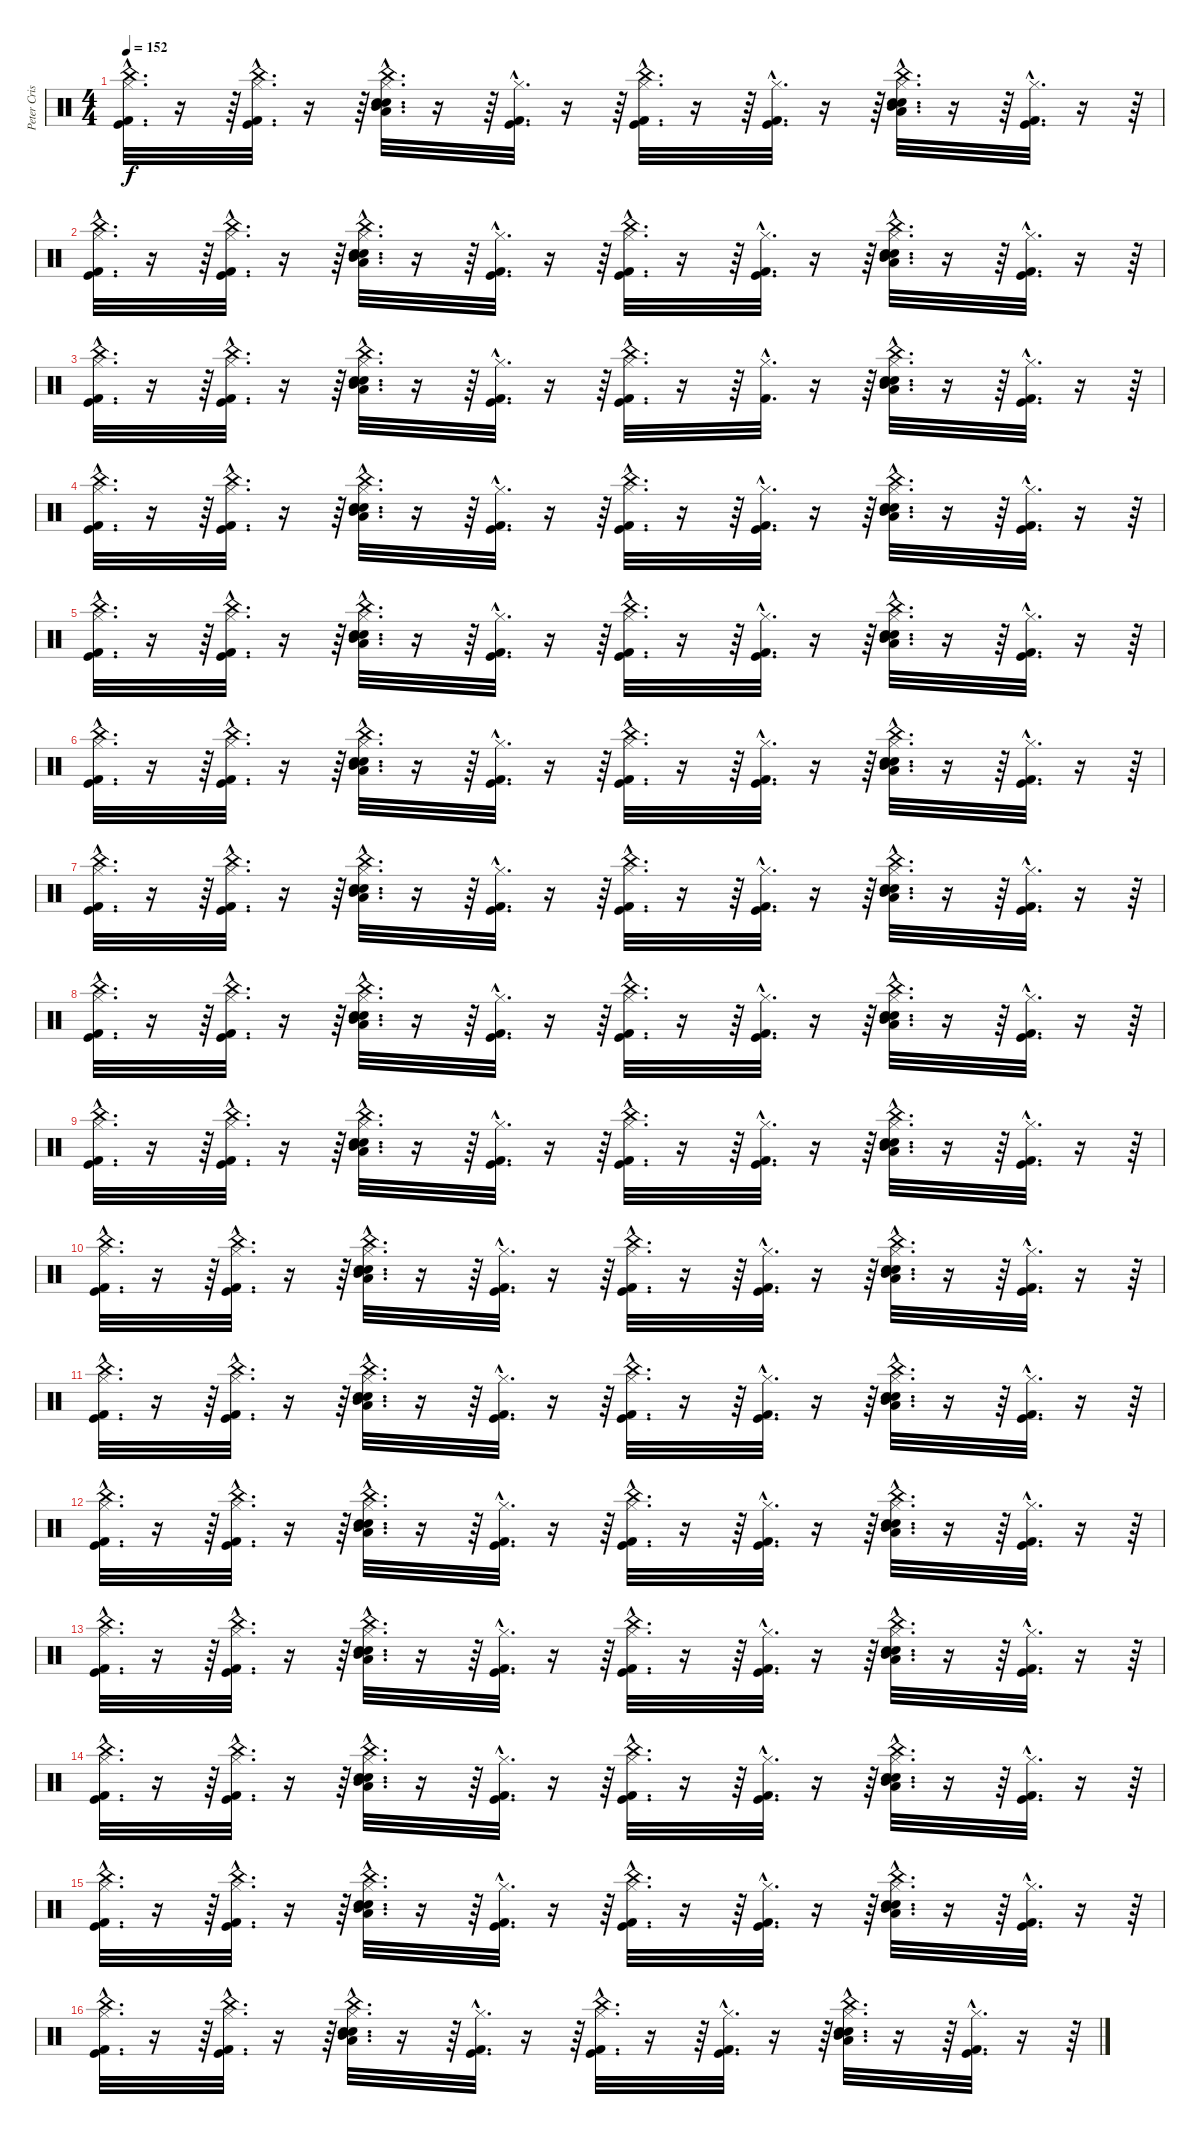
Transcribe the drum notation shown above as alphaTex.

\track ("Peter Criss" "Peter Cris") {instrument percussion}
\staff {score}
\articulation defaults
\ts (4 4)
\tempo 152
\clef neutral
\ks c
("China (hit)"{hac} "Kick (hit) 2"{hac} "Kick (hit)"{hac} "Hi-Hat (closed)"{hac}).32{d dy f} r.16 r.64 ("Kick (hit)"{hac} "Kick (hit) 2"{hac} "China (hit)"{hac} "Hi-Hat (closed)"{hac}).32{d} r.16 r.64 ("China (hit)"{hac} "Electric Snare (hit)"{hac} "Snare (hit) 2"{hac} "Hi-Hat (closed)"{hac} "Mid Tom (hit)"{hac} "Low Tom (hit)"{hac}).32{d} r.16 r.64 ("Kick (hit) 2"{hac} "Kick (hit)"{hac} "Hi-Hat (closed)"{hac}).32{d} r.16 r.64 ("China (hit)"{hac} "Kick (hit)"{hac} "Kick (hit) 2"{hac} "Hi-Hat (closed)"{hac}).32{d} r.16 r.64 ("Kick (hit) 2"{hac} "Kick (hit)"{hac} "Hi-Hat (closed)"{hac}).32{d} r.16 r.64 ("China (hit)"{hac} "Electric Snare (hit)"{hac} "Snare (hit) 2"{hac} "Hi-Hat (closed)"{hac} "Mid Tom (hit)"{hac} "Low Tom (hit)"{hac}).32{d} r.16 r.64 ("Kick (hit) 2"{hac} "Kick (hit)"{hac} "Hi-Hat (closed)"{hac}).32{d} r.16 r.64 |
("China (hit)"{hac} "Kick (hit) 2"{hac} "Kick (hit)"{hac} "Hi-Hat (closed)"{hac}).32{d} r.16 r.64 ("Kick (hit)"{hac} "Kick (hit) 2"{hac} "China (hit)"{hac} "Hi-Hat (closed)"{hac}).32{d} r.16 r.64 ("China (hit)"{hac} "Electric Snare (hit)"{hac} "Snare (hit) 2"{hac} "Hi-Hat (closed)"{hac} "Mid Tom (hit)"{hac} "Low Tom (hit)"{hac}).32{d} r.16 r.64 ("Kick (hit) 2"{hac} "Kick (hit)"{hac} "Hi-Hat (closed)"{hac}).32{d} r.16 r.64 ("China (hit)"{hac} "Kick (hit)"{hac} "Kick (hit) 2"{hac} "Hi-Hat (closed)"{hac}).32{d} r.16 r.64 ("Kick (hit) 2"{hac} "Kick (hit)"{hac} "Hi-Hat (closed)"{hac}).32{d} r.16 r.64 ("China (hit)"{hac} "Electric Snare (hit)"{hac} "Snare (hit) 2"{hac} "Hi-Hat (closed)"{hac} "Mid Tom (hit)"{hac} "Low Tom (hit)"{hac}).32{d} r.16 r.64 ("Kick (hit) 2"{hac} "Kick (hit)"{hac} "Hi-Hat (closed)"{hac}).32{d} r.16 r.64 |
("China (hit)"{hac} "Kick (hit) 2"{hac} "Kick (hit)"{hac} "Hi-Hat (closed)"{hac}).32{d} r.16 r.64 ("Kick (hit) 2"{hac} "China (hit)"{hac} "Hi-Hat (closed)"{hac} "Kick (hit)"{hac}).32{d} r.16 r.64 ("China (hit)"{hac} "Electric Snare (hit)"{hac} "Snare (hit) 2"{hac} "Hi-Hat (closed)"{hac} "Mid Tom (hit)"{hac} "Low Tom (hit)"{hac}).32{d} r.16 r.64 ("Kick (hit) 2"{hac} "Kick (hit)"{hac} "Hi-Hat (closed)"{hac}).32{d} r.16 r.64 ("China (hit)"{hac} "Kick (hit)"{hac} "Kick (hit) 2"{hac} "Hi-Hat (closed)"{hac}).32{d} r.16 r.64 ("Kick (hit) 2"{hac} "Hi-Hat (closed)"{hac}).32{d} r.16 r.64 ("China (hit)"{hac} "Electric Snare (hit)"{hac} "Snare (hit) 2"{hac} "Hi-Hat (closed)"{hac} "Mid Tom (hit)"{hac} "Low Tom (hit)"{hac}).32{d} r.16 r.64 ("Kick (hit) 2"{hac} "Kick (hit)"{hac} "Hi-Hat (closed)"{hac}).32{d} r.16 r.64 |
("China (hit)"{hac} "Kick (hit) 2"{hac} "Kick (hit)"{hac} "Hi-Hat (closed)"{hac}).32{d} r.16 r.64 ("Kick (hit)"{hac} "Kick (hit) 2"{hac} "China (hit)"{hac} "Hi-Hat (closed)"{hac}).32{d} r.16 r.64 ("China (hit)"{hac} "Electric Snare (hit)"{hac} "Snare (hit) 2"{hac} "Hi-Hat (closed)"{hac} "Mid Tom (hit)"{hac} "Low Tom (hit)"{hac}).32{d} r.16 r.64 ("Kick (hit) 2"{hac} "Kick (hit)"{hac} "Hi-Hat (closed)"{hac}).32{d} r.16 r.64 ("China (hit)"{hac} "Kick (hit)"{hac} "Kick (hit) 2"{hac} "Hi-Hat (closed)"{hac}).32{d} r.16 r.64 ("Kick (hit) 2"{hac} "Kick (hit)"{hac} "Hi-Hat (closed)"{hac}).32{d} r.16 r.64 ("China (hit)"{hac} "Electric Snare (hit)"{hac} "Snare (hit) 2"{hac} "Hi-Hat (closed)"{hac} "Mid Tom (hit)"{hac} "Low Tom (hit)"{hac}).32{d} r.16 r.64 ("Kick (hit) 2"{hac} "Kick (hit)"{hac} "Hi-Hat (closed)"{hac}).32{d} r.16 r.64 |
("China (hit)"{hac} "Kick (hit) 2"{hac} "Kick (hit)"{hac} "Hi-Hat (closed)"{hac}).32{d} r.16 r.64 ("Kick (hit)"{hac} "Kick (hit) 2"{hac} "China (hit)"{hac} "Hi-Hat (closed)"{hac}).32{d} r.16 r.64 ("China (hit)"{hac} "Electric Snare (hit)"{hac} "Snare (hit) 2"{hac} "Hi-Hat (closed)"{hac} "Mid Tom (hit)"{hac} "Low Tom (hit)"{hac}).32{d} r.16 r.64 ("Kick (hit) 2"{hac} "Kick (hit)"{hac} "Hi-Hat (closed)"{hac}).32{d} r.16 r.64 ("China (hit)"{hac} "Kick (hit)"{hac} "Kick (hit) 2"{hac} "Hi-Hat (closed)"{hac}).32{d} r.16 r.64 ("Kick (hit) 2"{hac} "Kick (hit)"{hac} "Hi-Hat (closed)"{hac}).32{d} r.16 r.64 ("China (hit)"{hac} "Electric Snare (hit)"{hac} "Snare (hit) 2"{hac} "Hi-Hat (closed)"{hac} "Mid Tom (hit)"{hac} "Low Tom (hit)"{hac}).32{d} r.16 r.64 ("Kick (hit) 2"{hac} "Kick (hit)"{hac} "Hi-Hat (closed)"{hac}).32{d} r.16 r.64 |
("China (hit)"{hac} "Kick (hit) 2"{hac} "Kick (hit)"{hac} "Hi-Hat (closed)"{hac}).32{d} r.16 r.64 ("Kick (hit)"{hac} "Kick (hit) 2"{hac} "China (hit)"{hac} "Hi-Hat (closed)"{hac}).32{d} r.16 r.64 ("China (hit)"{hac} "Electric Snare (hit)"{hac} "Snare (hit) 2"{hac} "Hi-Hat (closed)"{hac} "Mid Tom (hit)"{hac} "Low Tom (hit)"{hac}).32{d} r.16 r.64 ("Kick (hit) 2"{hac} "Kick (hit)"{hac} "Hi-Hat (closed)"{hac}).32{d} r.16 r.64 ("China (hit)"{hac} "Kick (hit)"{hac} "Kick (hit) 2"{hac} "Hi-Hat (closed)"{hac}).32{d} r.16 r.64 ("Kick (hit) 2"{hac} "Kick (hit)"{hac} "Hi-Hat (closed)"{hac}).32{d} r.16 r.64 ("China (hit)"{hac} "Electric Snare (hit)"{hac} "Snare (hit) 2"{hac} "Hi-Hat (closed)"{hac} "Mid Tom (hit)"{hac} "Low Tom (hit)"{hac}).32{d} r.16 r.64 ("Kick (hit) 2"{hac} "Kick (hit)"{hac} "Hi-Hat (closed)"{hac}).32{d} r.16 r.64 |
("China (hit)"{hac} "Kick (hit) 2"{hac} "Kick (hit)"{hac} "Hi-Hat (closed)"{hac}).32{d} r.16 r.64 ("Kick (hit)"{hac} "Kick (hit) 2"{hac} "China (hit)"{hac} "Hi-Hat (closed)"{hac}).32{d} r.16 r.64 ("China (hit)"{hac} "Electric Snare (hit)"{hac} "Snare (hit) 2"{hac} "Hi-Hat (closed)"{hac} "Mid Tom (hit)"{hac} "Low Tom (hit)"{hac}).32{d} r.16 r.64 ("Kick (hit) 2"{hac} "Kick (hit)"{hac} "Hi-Hat (closed)"{hac}).32{d} r.16 r.64 ("China (hit)"{hac} "Kick (hit)"{hac} "Kick (hit) 2"{hac} "Hi-Hat (closed)"{hac}).32{d} r.16 r.64 ("Kick (hit) 2"{hac} "Kick (hit)"{hac} "Hi-Hat (closed)"{hac}).32{d} r.16 r.64 ("China (hit)"{hac} "Electric Snare (hit)"{hac} "Snare (hit) 2"{hac} "Hi-Hat (closed)"{hac} "Mid Tom (hit)"{hac} "Low Tom (hit)"{hac}).32{d} r.16 r.64 ("Kick (hit) 2"{hac} "Kick (hit)"{hac} "Hi-Hat (closed)"{hac}).32{d} r.16 r.64 |
("China (hit)"{hac} "Kick (hit) 2"{hac} "Kick (hit)"{hac} "Hi-Hat (closed)"{hac}).32{d} r.16 r.64 ("Kick (hit)"{hac} "Kick (hit) 2"{hac} "China (hit)"{hac} "Hi-Hat (closed)"{hac}).32{d} r.16 r.64 ("China (hit)"{hac} "Electric Snare (hit)"{hac} "Snare (hit) 2"{hac} "Hi-Hat (closed)"{hac} "Mid Tom (hit)"{hac} "Low Tom (hit)"{hac}).32{d} r.16 r.64 ("Kick (hit) 2"{hac} "Kick (hit)"{hac} "Hi-Hat (closed)"{hac}).32{d} r.16 r.64 ("China (hit)"{hac} "Kick (hit)"{hac} "Kick (hit) 2"{hac} "Hi-Hat (closed)"{hac}).32{d} r.16 r.64 ("Kick (hit) 2"{hac} "Kick (hit)"{hac} "Hi-Hat (closed)"{hac}).32{d} r.16 r.64 ("China (hit)"{hac} "Electric Snare (hit)"{hac} "Snare (hit) 2"{hac} "Hi-Hat (closed)"{hac} "Mid Tom (hit)"{hac} "Low Tom (hit)"{hac}).32{d} r.16 r.64 ("Kick (hit) 2"{hac} "Kick (hit)"{hac} "Hi-Hat (closed)"{hac}).32{d} r.16 r.64 |
("China (hit)"{hac} "Kick (hit) 2"{hac} "Kick (hit)"{hac} "Hi-Hat (closed)"{hac}).32{d} r.16 r.64 ("Kick (hit)"{hac} "Kick (hit) 2"{hac} "China (hit)"{hac} "Hi-Hat (closed)"{hac}).32{d} r.16 r.64 ("China (hit)"{hac} "Electric Snare (hit)"{hac} "Snare (hit) 2"{hac} "Hi-Hat (closed)"{hac} "Mid Tom (hit)"{hac} "Low Tom (hit)"{hac}).32{d} r.16 r.64 ("Kick (hit) 2"{hac} "Kick (hit)"{hac} "Hi-Hat (closed)"{hac}).32{d} r.16 r.64 ("China (hit)"{hac} "Kick (hit)"{hac} "Kick (hit) 2"{hac} "Hi-Hat (closed)"{hac}).32{d} r.16 r.64 ("Kick (hit) 2"{hac} "Kick (hit)"{hac} "Hi-Hat (closed)"{hac}).32{d} r.16 r.64 ("China (hit)"{hac} "Electric Snare (hit)"{hac} "Snare (hit) 2"{hac} "Hi-Hat (closed)"{hac} "Mid Tom (hit)"{hac} "Low Tom (hit)"{hac}).32{d} r.16 r.64 ("Kick (hit) 2"{hac} "Kick (hit)"{hac} "Hi-Hat (closed)"{hac}).32{d} r.16 r.64 |
("China (hit)"{hac} "Kick (hit) 2"{hac} "Kick (hit)"{hac} "Hi-Hat (closed)"{hac}).32{d} r.16 r.64 ("Kick (hit)"{hac} "Kick (hit) 2"{hac} "China (hit)"{hac} "Hi-Hat (closed)"{hac}).32{d} r.16 r.64 ("China (hit)"{hac} "Electric Snare (hit)"{hac} "Snare (hit) 2"{hac} "Hi-Hat (closed)"{hac} "Mid Tom (hit)"{hac} "Low Tom (hit)"{hac}).32{d} r.16 r.64 ("Kick (hit) 2"{hac} "Kick (hit)"{hac} "Hi-Hat (closed)"{hac}).32{d} r.16 r.64 ("China (hit)"{hac} "Kick (hit)"{hac} "Kick (hit) 2"{hac} "Hi-Hat (closed)"{hac}).32{d} r.16 r.64 ("Kick (hit) 2"{hac} "Kick (hit)"{hac} "Hi-Hat (closed)"{hac}).32{d} r.16 r.64 ("China (hit)"{hac} "Electric Snare (hit)"{hac} "Snare (hit) 2"{hac} "Hi-Hat (closed)"{hac} "Mid Tom (hit)"{hac} "Low Tom (hit)"{hac}).32{d} r.16 r.64 ("Kick (hit) 2"{hac} "Kick (hit)"{hac} "Hi-Hat (closed)"{hac}).32{d} r.16 r.64 |
("China (hit)"{hac} "Kick (hit) 2"{hac} "Kick (hit)"{hac} "Hi-Hat (closed)"{hac}).32{d} r.16 r.64 ("Kick (hit)"{hac} "Kick (hit) 2"{hac} "China (hit)"{hac} "Hi-Hat (closed)"{hac}).32{d} r.16 r.64 ("China (hit)"{hac} "Electric Snare (hit)"{hac} "Snare (hit) 2"{hac} "Hi-Hat (closed)"{hac} "Mid Tom (hit)"{hac} "Low Tom (hit)"{hac}).32{d} r.16 r.64 ("Kick (hit) 2"{hac} "Kick (hit)"{hac} "Hi-Hat (closed)"{hac}).32{d} r.16 r.64 ("China (hit)"{hac} "Kick (hit)"{hac} "Kick (hit) 2"{hac} "Hi-Hat (closed)"{hac}).32{d} r.16 r.64 ("Kick (hit) 2"{hac} "Kick (hit)"{hac} "Hi-Hat (closed)"{hac}).32{d} r.16 r.64 ("China (hit)"{hac} "Electric Snare (hit)"{hac} "Snare (hit) 2"{hac} "Hi-Hat (closed)"{hac} "Mid Tom (hit)"{hac} "Low Tom (hit)"{hac}).32{d} r.16 r.64 ("Kick (hit) 2"{hac} "Kick (hit)"{hac} "Hi-Hat (closed)"{hac}).32{d} r.16 r.64 |
("China (hit)"{hac} "Kick (hit) 2"{hac} "Kick (hit)"{hac} "Hi-Hat (closed)"{hac}).32{d} r.16 r.64 ("Kick (hit)"{hac} "Kick (hit) 2"{hac} "China (hit)"{hac} "Hi-Hat (closed)"{hac}).32{d} r.16 r.64 ("China (hit)"{hac} "Electric Snare (hit)"{hac} "Snare (hit) 2"{hac} "Hi-Hat (closed)"{hac} "Mid Tom (hit)"{hac} "Low Tom (hit)"{hac}).32{d} r.16 r.64 ("Kick (hit) 2"{hac} "Kick (hit)"{hac} "Hi-Hat (closed)"{hac}).32{d} r.16 r.64 ("China (hit)"{hac} "Kick (hit)"{hac} "Kick (hit) 2"{hac} "Hi-Hat (closed)"{hac}).32{d} r.16 r.64 ("Kick (hit) 2"{hac} "Kick (hit)"{hac} "Hi-Hat (closed)"{hac}).32{d} r.16 r.64 ("China (hit)"{hac} "Electric Snare (hit)"{hac} "Snare (hit) 2"{hac} "Hi-Hat (closed)"{hac} "Mid Tom (hit)"{hac} "Low Tom (hit)"{hac}).32{d} r.16 r.64 ("Kick (hit) 2"{hac} "Kick (hit)"{hac} "Hi-Hat (closed)"{hac}).32{d} r.16 r.64 |
("China (hit)"{hac} "Kick (hit) 2"{hac} "Kick (hit)"{hac} "Hi-Hat (closed)"{hac}).32{d} r.16 r.64 ("Kick (hit)"{hac} "Kick (hit) 2"{hac} "China (hit)"{hac} "Hi-Hat (closed)"{hac}).32{d} r.16 r.64 ("China (hit)"{hac} "Electric Snare (hit)"{hac} "Snare (hit) 2"{hac} "Hi-Hat (closed)"{hac} "Mid Tom (hit)"{hac} "Low Tom (hit)"{hac}).32{d} r.16 r.64 ("Kick (hit) 2"{hac} "Kick (hit)"{hac} "Hi-Hat (closed)"{hac}).32{d} r.16 r.64 ("China (hit)"{hac} "Kick (hit)"{hac} "Kick (hit) 2"{hac} "Hi-Hat (closed)"{hac}).32{d} r.16 r.64 ("Kick (hit) 2"{hac} "Kick (hit)"{hac} "Hi-Hat (closed)"{hac}).32{d} r.16 r.64 ("China (hit)"{hac} "Electric Snare (hit)"{hac} "Snare (hit) 2"{hac} "Hi-Hat (closed)"{hac} "Mid Tom (hit)"{hac} "Low Tom (hit)"{hac}).32{d} r.16 r.64 ("Kick (hit) 2"{hac} "Kick (hit)"{hac} "Hi-Hat (closed)"{hac}).32{d} r.16 r.64 |
("China (hit)"{hac} "Kick (hit) 2"{hac} "Kick (hit)"{hac} "Hi-Hat (closed)"{hac}).32{d} r.16 r.64 ("Kick (hit)"{hac} "Kick (hit) 2"{hac} "China (hit)"{hac} "Hi-Hat (closed)"{hac}).32{d} r.16 r.64 ("China (hit)"{hac} "Electric Snare (hit)"{hac} "Snare (hit) 2"{hac} "Hi-Hat (closed)"{hac} "Mid Tom (hit)"{hac} "Low Tom (hit)"{hac}).32{d} r.16 r.64 ("Kick (hit) 2"{hac} "Kick (hit)"{hac} "Hi-Hat (closed)"{hac}).32{d} r.16 r.64 ("China (hit)"{hac} "Kick (hit)"{hac} "Kick (hit) 2"{hac} "Hi-Hat (closed)"{hac}).32{d} r.16 r.64 ("Kick (hit) 2"{hac} "Kick (hit)"{hac} "Hi-Hat (closed)"{hac}).32{d} r.16 r.64 ("China (hit)"{hac} "Electric Snare (hit)"{hac} "Snare (hit) 2"{hac} "Hi-Hat (closed)"{hac} "Mid Tom (hit)"{hac} "Low Tom (hit)"{hac}).32{d} r.16 r.64 ("Kick (hit) 2"{hac} "Kick (hit)"{hac} "Hi-Hat (closed)"{hac}).32{d} r.16 r.64 |
("China (hit)"{hac} "Kick (hit) 2"{hac} "Kick (hit)"{hac} "Hi-Hat (closed)"{hac}).32{d} r.16 r.64 ("Kick (hit)"{hac} "Kick (hit) 2"{hac} "China (hit)"{hac} "Hi-Hat (closed)"{hac}).32{d} r.16 r.64 ("China (hit)"{hac} "Electric Snare (hit)"{hac} "Snare (hit) 2"{hac} "Hi-Hat (closed)"{hac} "Mid Tom (hit)"{hac} "Low Tom (hit)"{hac}).32{d} r.16 r.64 ("Kick (hit) 2"{hac} "Kick (hit)"{hac} "Hi-Hat (closed)"{hac}).32{d} r.16 r.64 ("China (hit)"{hac} "Kick (hit)"{hac} "Kick (hit) 2"{hac} "Hi-Hat (closed)"{hac}).32{d} r.16 r.64 ("Kick (hit) 2"{hac} "Kick (hit)"{hac} "Hi-Hat (closed)"{hac}).32{d} r.16 r.64 ("China (hit)"{hac} "Electric Snare (hit)"{hac} "Snare (hit) 2"{hac} "Hi-Hat (closed)"{hac} "Mid Tom (hit)"{hac} "Low Tom (hit)"{hac}).32{d} r.16 r.64 ("Kick (hit) 2"{hac} "Kick (hit)"{hac} "Hi-Hat (closed)"{hac}).32{d} r.16 r.64 |
("China (hit)"{hac} "Kick (hit) 2"{hac} "Kick (hit)"{hac} "Hi-Hat (closed)"{hac}).32{d} r.16 r.64 ("Kick (hit)"{hac} "Kick (hit) 2"{hac} "China (hit)"{hac} "Hi-Hat (closed)"{hac}).32{d} r.16 r.64 ("China (hit)"{hac} "Electric Snare (hit)"{hac} "Snare (hit) 2"{hac} "Hi-Hat (closed)"{hac} "Mid Tom (hit)"{hac} "Low Tom (hit)"{hac}).32{d} r.16 r.64 ("Kick (hit) 2"{hac} "Kick (hit)"{hac} "Hi-Hat (closed)"{hac}).32{d} r.16 r.64 ("China (hit)"{hac} "Kick (hit)"{hac} "Kick (hit) 2"{hac} "Hi-Hat (closed)"{hac}).32{d} r.16 r.64 ("Kick (hit) 2"{hac} "Kick (hit)"{hac} "Hi-Hat (closed)"{hac}).32{d} r.16 r.64 ("China (hit)"{hac} "Electric Snare (hit)"{hac} "Snare (hit) 2"{hac} "Hi-Hat (closed)"{hac} "Mid Tom (hit)"{hac} "Low Tom (hit)"{hac}).32{d} r.16 r.64 ("Kick (hit) 2"{hac} "Kick (hit)"{hac} "Hi-Hat (closed)"{hac}).32{d} r.16 r.64
